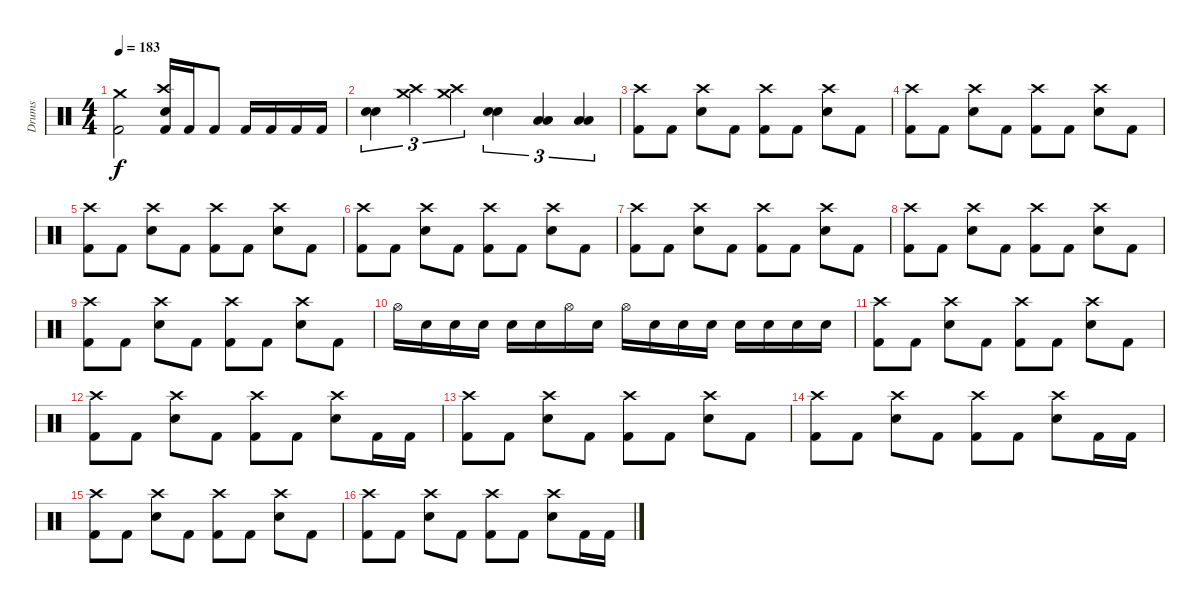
\track ("Drums" "Drums") {instrument percussion}
\staff {score}
\articulation defaults
\ts (4 4)
\tempo 183
\clef neutral
\ks c
("Crash medium (hit)" "Kick (hit) 2").2{dy f} ("Crash high (hit)" "Electric Snare (hit)" "Kick (hit) 2").16 "Kick (hit) 2".16 "Kick (hit) 2".8 "Kick (hit) 2".16 "Kick (hit) 2".16 "Kick (hit) 2".16 "Kick (hit) 2".16 |
("Electric Snare (hit)" "Electric Snare (hit)").4{tu (3 2)} ("Crash high (hit)" "Crash medium (hit)").4{tu (3 2)} ("Crash high (hit)" "Crash medium (hit)").4{tu (3 2)} ("Electric Snare (hit)" "Electric Snare (hit)").4{tu (3 2)} ("Low Tom (hit)" "Low Floor Tom (hit)").4{tu (3 2)} ("Low Tom (hit)" "Low Floor Tom (hit)").4{tu (3 2)} |
("Crash high (hit)" "Kick (hit) 2").8 "Kick (hit) 2".8 ("Crash high (hit)" "Electric Snare (hit)").8 "Kick (hit) 2".8 ("Crash high (hit)" "Kick (hit) 2").8 "Kick (hit) 2".8 ("Crash high (hit)" "Electric Snare (hit)").8 "Kick (hit) 2".8 |
("Crash high (hit)" "Kick (hit) 2").8 "Kick (hit) 2".8 ("Crash high (hit)" "Electric Snare (hit)").8 "Kick (hit) 2".8 ("Crash high (hit)" "Kick (hit) 2").8 "Kick (hit) 2".8 ("Crash high (hit)" "Electric Snare (hit)").8 "Kick (hit) 2".8 |
("Crash high (hit)" "Kick (hit) 2").8 "Kick (hit) 2".8 ("Crash high (hit)" "Electric Snare (hit)").8 "Kick (hit) 2".8 ("Crash high (hit)" "Kick (hit) 2").8 "Kick (hit) 2".8 ("Crash high (hit)" "Electric Snare (hit)").8 "Kick (hit) 2".8 |
("Crash high (hit)" "Kick (hit) 2").8 "Kick (hit) 2".8 ("Crash high (hit)" "Electric Snare (hit)").8 "Kick (hit) 2".8 ("Crash high (hit)" "Kick (hit) 2").8 "Kick (hit) 2".8 ("Crash high (hit)" "Electric Snare (hit)").8 "Kick (hit) 2".8 |
("Crash high (hit)" "Kick (hit) 2").8 "Kick (hit) 2".8 ("Crash high (hit)" "Electric Snare (hit)").8 "Kick (hit) 2".8 ("Crash high (hit)" "Kick (hit) 2").8 "Kick (hit) 2".8 ("Crash high (hit)" "Electric Snare (hit)").8 "Kick (hit) 2".8 |
("Crash high (hit)" "Kick (hit) 2").8 "Kick (hit) 2".8 ("Crash high (hit)" "Electric Snare (hit)").8 "Kick (hit) 2".8 ("Crash high (hit)" "Kick (hit) 2").8 "Kick (hit) 2".8 ("Crash high (hit)" "Electric Snare (hit)").8 "Kick (hit) 2".8 |
("Crash high (hit)" "Kick (hit) 2").8 "Kick (hit) 2".8 ("Crash high (hit)" "Electric Snare (hit)").8 "Kick (hit) 2".8 ("Crash high (hit)" "Kick (hit) 2").8 "Kick (hit) 2".8 ("Crash high (hit)" "Electric Snare (hit)").8 "Kick (hit) 2".8 |
"Hi-Hat (open)".16 "Electric Snare (hit)".16 "Electric Snare (hit)".16 "Electric Snare (hit)".16 "Electric Snare (hit)".16 "Electric Snare (hit)".16 "Hi-Hat (open)".16 "Electric Snare (hit)".16 "Hi-Hat (open)".16 "Electric Snare (hit)".16 "Electric Snare (hit)".16 "Electric Snare (hit)".16 "Electric Snare (hit)".16 "Electric Snare (hit)".16 "Electric Snare (hit)".16 "Electric Snare (hit)".16 |
("Crash high (hit)" "Kick (hit) 2").8 "Kick (hit) 2".8 ("Crash high (hit)" "Electric Snare (hit)").8 "Kick (hit) 2".8 ("Crash high (hit)" "Kick (hit) 2").8 "Kick (hit) 2".8 ("Crash high (hit)" "Electric Snare (hit)").8 "Kick (hit) 2".8 |
("Crash high (hit)" "Kick (hit) 2").8 "Kick (hit) 2".8 ("Crash high (hit)" "Electric Snare (hit)").8 "Kick (hit) 2".8 ("Crash high (hit)" "Kick (hit) 2").8 "Kick (hit) 2".8 ("Crash high (hit)" "Electric Snare (hit)").8 "Kick (hit) 2".16 "Kick (hit) 2".16 |
("Crash high (hit)" "Kick (hit) 2").8 "Kick (hit) 2".8 ("Crash high (hit)" "Electric Snare (hit)").8 "Kick (hit) 2".8 ("Crash high (hit)" "Kick (hit) 2").8 "Kick (hit) 2".8 ("Crash high (hit)" "Electric Snare (hit)").8 "Kick (hit) 2".8 |
("Crash high (hit)" "Kick (hit) 2").8 "Kick (hit) 2".8 ("Crash high (hit)" "Electric Snare (hit)").8 "Kick (hit) 2".8 ("Crash high (hit)" "Kick (hit) 2").8 "Kick (hit) 2".8 ("Crash high (hit)" "Electric Snare (hit)").8 "Kick (hit) 2".16 "Kick (hit) 2".16 |
("Crash high (hit)" "Kick (hit) 2").8 "Kick (hit) 2".8 ("Crash high (hit)" "Electric Snare (hit)").8 "Kick (hit) 2".8 ("Crash high (hit)" "Kick (hit) 2").8 "Kick (hit) 2".8 ("Crash high (hit)" "Electric Snare (hit)").8 "Kick (hit) 2".8 |
("Crash high (hit)" "Kick (hit) 2").8 "Kick (hit) 2".8 ("Crash high (hit)" "Electric Snare (hit)").8 "Kick (hit) 2".8 ("Crash high (hit)" "Kick (hit) 2").8 "Kick (hit) 2".8 ("Crash high (hit)" "Electric Snare (hit)").8 "Kick (hit) 2".16 "Kick (hit) 2".16
